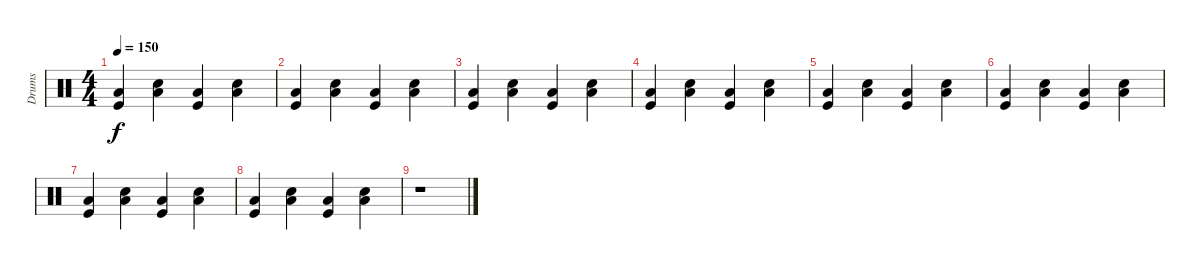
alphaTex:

\track ("Drums" "Drums") {instrument percussion}
\staff {score}
\articulation defaults
\ts (4 4)
\tempo 150
\clef neutral
\ks c
("Low Floor Tom (hit)" "Kick (hit)").4{dy f} ("Low Floor Tom (hit)" "Snare (hit) 2").4 ("Low Floor Tom (hit)" "Kick (hit)").4 ("Low Floor Tom (hit)" "Snare (hit) 2").4 |
("Low Floor Tom (hit)" "Kick (hit)").4 ("Low Floor Tom (hit)" "Snare (hit) 2").4 ("Low Floor Tom (hit)" "Kick (hit)").4 ("Low Floor Tom (hit)" "Snare (hit) 2").4 |
("Low Floor Tom (hit)" "Kick (hit)").4 ("Low Floor Tom (hit)" "Snare (hit) 2").4 ("Low Floor Tom (hit)" "Kick (hit)").4 ("Low Floor Tom (hit)" "Snare (hit) 2").4 |
("Low Floor Tom (hit)" "Kick (hit)").4 ("Low Floor Tom (hit)" "Snare (hit) 2").4 ("Low Floor Tom (hit)" "Kick (hit)").4 ("Low Floor Tom (hit)" "Snare (hit) 2").4 |
("Low Floor Tom (hit)" "Kick (hit)").4{volume 12} ("Low Floor Tom (hit)" "Snare (hit) 2").4 ("Low Floor Tom (hit)" "Kick (hit)").4 ("Low Floor Tom (hit)" "Snare (hit) 2").4 |
("Low Floor Tom (hit)" "Kick (hit)").4{volume 10} ("Low Floor Tom (hit)" "Snare (hit) 2").4 ("Low Floor Tom (hit)" "Kick (hit)").4 ("Low Floor Tom (hit)" "Snare (hit) 2").4 |
("Low Floor Tom (hit)" "Kick (hit)").4{volume 6} ("Low Floor Tom (hit)" "Snare (hit) 2").4 ("Low Floor Tom (hit)" "Kick (hit)").4 ("Low Floor Tom (hit)" "Snare (hit) 2").4 |
("Low Floor Tom (hit)" "Kick (hit)").4{volume 4} ("Low Floor Tom (hit)" "Snare (hit) 2").4 ("Low Floor Tom (hit)" "Kick (hit)").4 ("Low Floor Tom (hit)" "Snare (hit) 2").4 |
r.1
